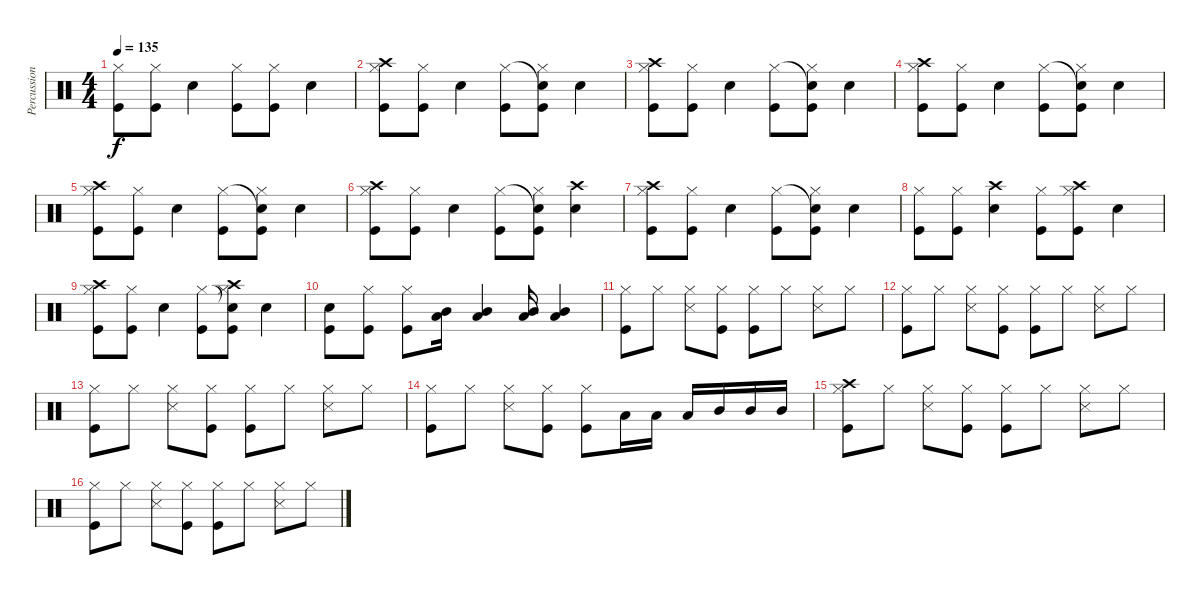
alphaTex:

\track ("Percussion" "Percussion") {instrument percussion}
\staff {score}
\articulation defaults
\ts (4 4)
\tempo 135
\clef neutral
\ks c
("Hi-Hat (closed)" "Kick (hit)").8{dy f} ("Hi-Hat (closed)" "Kick (hit)").8 "Electric Snare (hit)".4 ("Hi-Hat (closed)" "Kick (hit)").8 ("Hi-Hat (closed)" "Kick (hit)").8 "Electric Snare (hit)".4 |
("Crash high (hit)" "Hi-Hat (closed)" "Kick (hit)").8 ("Hi-Hat (closed)" "Kick (hit)").8 "Electric Snare (hit)".4 ("Hi-Hat (closed)" "Kick (hit)").8 ("Snare (hit)"{t} "Hi-Hat (closed)" "Kick (hit)").8 "Electric Snare (hit)".4 |
("Crash high (hit)" "Hi-Hat (closed)" "Kick (hit)").8 ("Hi-Hat (closed)" "Kick (hit)").8 "Electric Snare (hit)".4 ("Hi-Hat (closed)" "Kick (hit)").8 ("Snare (hit)"{t} "Hi-Hat (closed)" "Kick (hit)").8 "Electric Snare (hit)".4 |
("Crash high (hit)" "Hi-Hat (closed)" "Kick (hit)").8 ("Hi-Hat (closed)" "Kick (hit)").8 "Electric Snare (hit)".4 ("Hi-Hat (closed)" "Kick (hit)").8 ("Snare (hit)"{t} "Hi-Hat (closed)" "Kick (hit)").8 "Electric Snare (hit)".4 |
("Crash high (hit)" "Hi-Hat (closed)" "Kick (hit)").8 ("Hi-Hat (closed)" "Kick (hit)").8 "Electric Snare (hit)".4 ("Hi-Hat (closed)" "Kick (hit)").8 ("Snare (hit)"{t} "Hi-Hat (closed)" "Kick (hit)").8 "Electric Snare (hit)".4 |
("Crash high (hit)" "Hi-Hat (closed)" "Kick (hit)").8 ("Hi-Hat (closed)" "Kick (hit)").8 "Electric Snare (hit)".4 ("Hi-Hat (closed)" "Kick (hit)").8 ("Snare (hit)"{t} "Hi-Hat (closed)" "Kick (hit)").8 ("Crash high (hit)" "Electric Snare (hit)").4 |
("Crash high (hit)" "Hi-Hat (closed)" "Kick (hit)").8 ("Hi-Hat (closed)" "Kick (hit)").8 "Electric Snare (hit)".4 ("Hi-Hat (closed)" "Kick (hit)").8 ("Snare (hit)"{t} "Hi-Hat (closed)" "Kick (hit)").8 "Electric Snare (hit)".4 |
("Hi-Hat (closed)" "Kick (hit)").8 ("Hi-Hat (closed)" "Kick (hit)").8 ("Crash high (hit)" "Electric Snare (hit)").4 ("Hi-Hat (closed)" "Kick (hit)").8 ("Crash high (hit)" "Hi-Hat (closed)" "Kick (hit)").8 "Electric Snare (hit)".4 |
("Crash high (hit)" "Hi-Hat (closed)" "Kick (hit)").8 ("Hi-Hat (closed)" "Kick (hit)").8 "Electric Snare (hit)".4 ("Hi-Hat (closed)" "Kick (hit)").8 ("Snare (hit)"{t} "Crash high (hit)" "Hi-Hat (closed)" "Kick (hit)").8 "Electric Snare (hit)".4 |
("Snare (hit) 2" "Kick (hit)").8 ("Hi-Hat (closed)" "Kick (hit)").8 ("Hi-Hat (closed)" "Kick (hit)").8 ("Low Tom (hit)" "Mid Tom (hit)").16 ("Low Tom (hit)" "Mid Tom (hit)").4 ("Low Tom (hit)" "Mid Tom (hit)").16 ("Low Tom (hit)" "Mid Tom (hit)").4 |
("Hi-Hat (closed)" "Kick (hit)").8 "Hi-Hat (closed)".8 ("Hi-Hat (closed)" "Snare (side stick) 3").8 ("Hi-Hat (closed)" "Kick (hit)").8 ("Hi-Hat (closed)" "Kick (hit)").8 "Hi-Hat (closed)".8 ("Hi-Hat (closed)" "Snare (side stick) 3").8 "Hi-Hat (closed)".8 |
("Hi-Hat (closed)" "Kick (hit)").8 "Hi-Hat (closed)".8 ("Hi-Hat (closed)" "Snare (side stick) 3").8 ("Hi-Hat (closed)" "Kick (hit)").8 ("Hi-Hat (closed)" "Kick (hit)").8 "Hi-Hat (closed)".8 ("Hi-Hat (closed)" "Snare (side stick) 3").8 "Hi-Hat (closed)".8 |
("Hi-Hat (closed)" "Kick (hit)").8 "Hi-Hat (closed)".8 ("Hi-Hat (closed)" "Snare (side stick) 3").8 ("Hi-Hat (closed)" "Kick (hit)").8 ("Hi-Hat (closed)" "Kick (hit)").8 "Hi-Hat (closed)".8 ("Hi-Hat (closed)" "Snare (side stick) 3").8 "Hi-Hat (closed)".8 |
("Hi-Hat (closed)" "Kick (hit)").8 "Hi-Hat (closed)".8 ("Hi-Hat (closed)" "Snare (side stick) 3").8 ("Hi-Hat (closed)" "Kick (hit)").8 ("Hi-Hat (closed)" "Kick (hit)").8 "Low Tom (hit)".16 "Low Tom (hit)".16 "Low Tom (hit)".16 "Mid Tom (hit)".16 "Mid Tom (hit)".16 "Mid Tom (hit)".16 |
("Hi-Hat (closed)" "Crash high (hit)" "Kick (hit)").8 "Hi-Hat (closed)".8 ("Hi-Hat (closed)" "Snare (side stick) 3").8 ("Hi-Hat (closed)" "Kick (hit)").8 ("Hi-Hat (closed)" "Kick (hit)").8 "Hi-Hat (closed)".8 ("Hi-Hat (closed)" "Snare (side stick) 3").8 "Hi-Hat (closed)".8 |
("Hi-Hat (closed)" "Kick (hit)").8 "Hi-Hat (closed)".8 ("Hi-Hat (closed)" "Snare (side stick) 3").8 ("Hi-Hat (closed)" "Kick (hit)").8 ("Hi-Hat (closed)" "Kick (hit)").8 "Hi-Hat (closed)".8 ("Hi-Hat (closed)" "Snare (side stick) 3").8 "Hi-Hat (closed)".8
